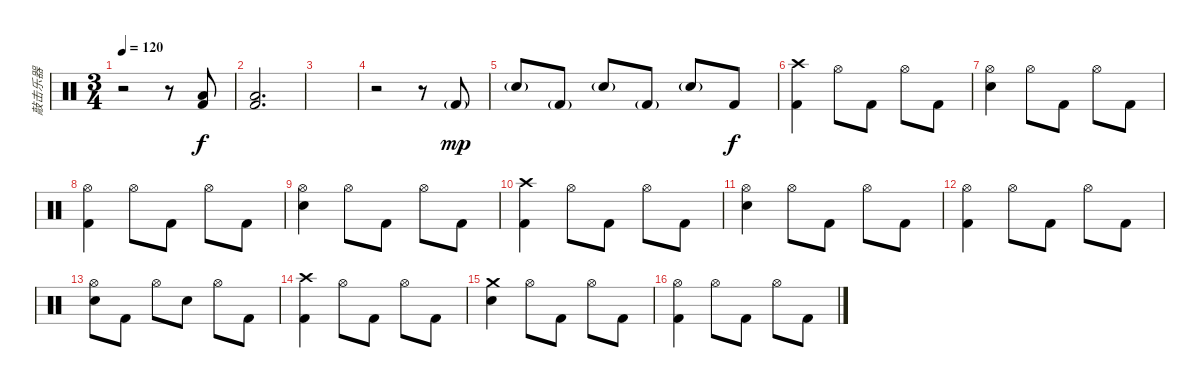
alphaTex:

\track ("敲击乐器" "敲击乐器") {instrument percussion}
\staff {score}
\articulation defaults
\ts (3 4)
\tempo 120
\clef neutral
\ks c
r.2{dy f} r.8 ("Low Floor Tom (hit)" "Kick (hit) 2").8 |
("Low Floor Tom (hit)" "Kick (hit) 2").2{d} |
|
r.2 r.8 "Kick (hit) 2"{g}.8{dy mp} |
"Electric Snare (hit)"{g}.8 "Kick (hit) 2"{g}.8 "Electric Snare (hit)"{g}.8 "Kick (hit) 2"{g}.8 "Electric Snare (hit)"{g}.8 "Kick (hit) 2".8{dy f} |
("Crash high (hit)" "Kick (hit) 2").4 "Hi-Hat (open)".8 "Kick (hit) 2".8 "Hi-Hat (open)".8 "Kick (hit) 2".8 |
("Hi-Hat (open)" "Snare (hit) 2").4 "Hi-Hat (open)".8 "Kick (hit) 2".8 "Hi-Hat (open)".8 "Kick (hit) 2".8 |
("Hi-Hat (open)" "Kick (hit) 2").4 "Hi-Hat (open)".8 "Kick (hit) 2".8 "Hi-Hat (open)".8 "Kick (hit) 2".8 |
("Hi-Hat (open)" "Snare (hit) 2").4 "Hi-Hat (open)".8 "Kick (hit) 2".8 "Hi-Hat (open)".8 "Kick (hit) 2".8 |
("Crash high (hit)" "Kick (hit) 2").4 "Hi-Hat (open)".8 "Kick (hit) 2".8 "Hi-Hat (open)".8 "Kick (hit) 2".8 |
("Hi-Hat (open)" "Snare (hit) 2").4 "Hi-Hat (open)".8 "Kick (hit) 2".8 "Hi-Hat (open)".8 "Kick (hit) 2".8 |
("Hi-Hat (open)" "Kick (hit) 2").4 "Hi-Hat (open)".8 "Kick (hit) 2".8 "Hi-Hat (open)".8 "Kick (hit) 2".8 |
("Hi-Hat (open)" "Snare (hit) 2").8 "Kick (hit) 2".8 "Hi-Hat (open)".8 "Snare (hit) 2".8 "Hi-Hat (open)".8 "Kick (hit) 2".8 |
("Crash high (hit)" "Kick (hit) 2").4 "Hi-Hat (open)".8 "Kick (hit) 2".8 "Hi-Hat (open)".8 "Kick (hit) 2".8 |
("Crash medium (hit)" "Snare (hit) 2").4 "Hi-Hat (open)".8 "Kick (hit) 2".8 "Hi-Hat (open)".8 "Kick (hit) 2".8 |
("Hi-Hat (open)" "Kick (hit) 2").4 "Hi-Hat (open)".8 "Kick (hit) 2".8 "Hi-Hat (open)".8 "Kick (hit) 2".8
